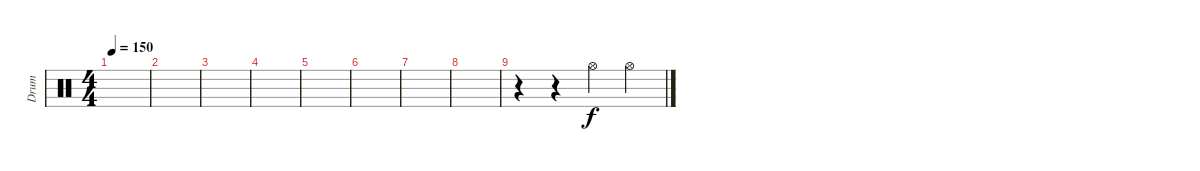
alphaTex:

\track ("Drum" "Drum") {instrument percussion}
\staff {score}
\articulation defaults
\ts (4 4)
\tempo 150
\clef neutral
\ks c
|
|
|
|
|
|
|
|
r.4 r.4 "Hi-Hat (open)".4 "Hi-Hat (open)".4
